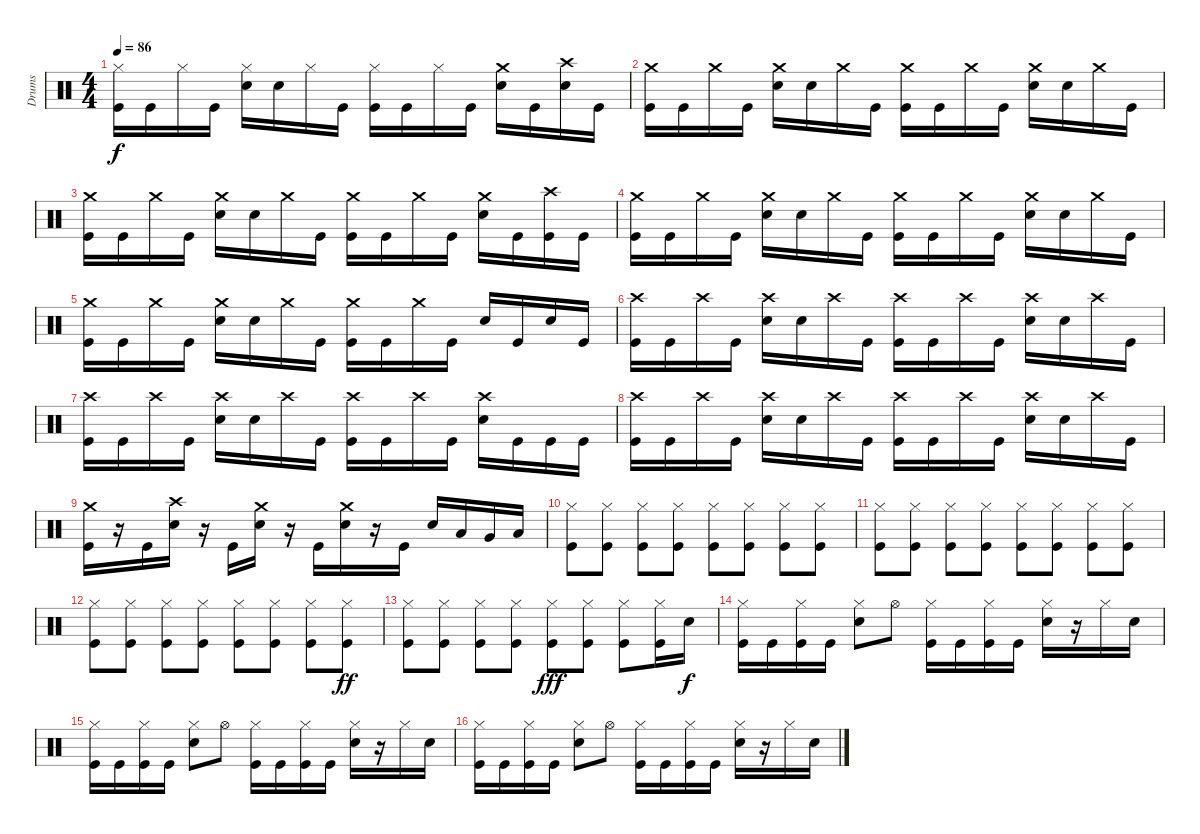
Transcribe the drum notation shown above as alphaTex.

\track ("Drums" "Drums") {instrument percussion}
\staff {score}
\articulation defaults
\ts (4 4)
\tempo 86
\clef neutral
\ks c
("Hi-Hat (closed)" "Kick (hit)").16{dy f} "Kick (hit)".16 "Hi-Hat (closed)".16 "Kick (hit)".16 ("Hi-Hat (closed)" "Electric Snare (hit)").16 "Electric Snare (hit)".16 "Hi-Hat (closed)".16 "Kick (hit)".16 ("Hi-Hat (closed)" "Kick (hit)").16 "Kick (hit)".16 "Hi-Hat (closed)".16 "Kick (hit)".16 ("Crash medium (hit)" "Electric Snare (hit)").16 "Kick (hit)".16 ("Crash high (hit)" "Electric Snare (hit)").16 "Kick (hit)".16 |
("Crash medium (hit)" "Kick (hit)").16 "Kick (hit)".16 "Crash medium (hit)".16 "Kick (hit)".16 ("Crash medium (hit)" "Electric Snare (hit)").16 "Electric Snare (hit)".16 "Crash medium (hit)".16 "Kick (hit)".16 ("Crash medium (hit)" "Kick (hit)").16 "Kick (hit)".16 "Crash medium (hit)".16 "Kick (hit)".16 ("Crash medium (hit)" "Electric Snare (hit)").16 "Electric Snare (hit)".16 "Crash medium (hit)".16 "Kick (hit)".16 |
("Crash medium (hit)" "Kick (hit)").16 "Kick (hit)".16 "Crash medium (hit)".16 "Kick (hit)".16 ("Crash medium (hit)" "Electric Snare (hit)").16 "Electric Snare (hit)".16 "Crash medium (hit)".16 "Kick (hit)".16 ("Crash medium (hit)" "Kick (hit)").16 "Kick (hit)".16 "Crash medium (hit)".16 "Kick (hit)".16 ("Crash medium (hit)" "Electric Snare (hit)").16 "Kick (hit)".16 ("Crash high (hit)" "Kick (hit)").16 "Kick (hit)".16 |
("Crash medium (hit)" "Kick (hit)").16 "Kick (hit)".16 "Crash medium (hit)".16 "Kick (hit)".16 ("Crash medium (hit)" "Electric Snare (hit)").16 "Electric Snare (hit)".16 "Crash medium (hit)".16 "Kick (hit)".16 ("Crash medium (hit)" "Kick (hit)").16 "Kick (hit)".16 "Crash medium (hit)".16 "Kick (hit)".16 ("Crash medium (hit)" "Electric Snare (hit)").16 "Electric Snare (hit)".16 "Crash medium (hit)".16 "Kick (hit)".16 |
("Crash medium (hit)" "Kick (hit)").16 "Kick (hit)".16 "Crash medium (hit)".16 "Kick (hit)".16 ("Crash medium (hit)" "Electric Snare (hit)").16 "Electric Snare (hit)".16 "Crash medium (hit)".16 "Kick (hit)".16 ("Crash medium (hit)" "Kick (hit)").16 "Kick (hit)".16 "Crash medium (hit)".16 "Kick (hit)".16 "Electric Snare (hit)".16 "Kick (hit)".16 "Electric Snare (hit)".16 "Kick (hit)".16 |
("Crash high (hit)" "Kick (hit)").16 "Kick (hit)".16 "Crash high (hit)".16 "Kick (hit)".16 ("Crash high (hit)" "Electric Snare (hit)").16 "Electric Snare (hit)".16 "Crash high (hit)".16 "Kick (hit)".16 ("Crash high (hit)" "Kick (hit)").16 "Kick (hit)".16 "Crash high (hit)".16 "Kick (hit)".16 ("Crash high (hit)" "Electric Snare (hit)").16 "Electric Snare (hit)".16 "Crash high (hit)".16 "Kick (hit)".16 |
("Crash high (hit)" "Kick (hit)").16 "Kick (hit)".16 "Crash high (hit)".16 "Kick (hit)".16 ("Crash high (hit)" "Electric Snare (hit)").16 "Electric Snare (hit)".16 "Crash high (hit)".16 "Kick (hit)".16 ("Crash high (hit)" "Kick (hit)").16 "Kick (hit)".16 "Crash high (hit)".16 "Kick (hit)".16 ("Crash high (hit)" "Electric Snare (hit)").16 "Kick (hit)".16 "Kick (hit)".16 "Kick (hit)".16 |
("Crash high (hit)" "Kick (hit)").16 "Kick (hit)".16 "Crash high (hit)".16 "Kick (hit)".16 ("Crash high (hit)" "Electric Snare (hit)").16 "Electric Snare (hit)".16 "Crash high (hit)".16 "Kick (hit)".16 ("Crash high (hit)" "Kick (hit)").16 "Kick (hit)".16 "Crash high (hit)".16 "Kick (hit)".16 ("Crash high (hit)" "Electric Snare (hit)").16 "Electric Snare (hit)".16 "Crash high (hit)".16 "Kick (hit)".16 |
("Crash medium (hit)" "Kick (hit)").16 r.16 "Kick (hit)".16 ("Crash high (hit)" "Electric Snare (hit)").16 r.16 "Kick (hit)".16 ("Crash medium (hit)" "Electric Snare (hit)").16 r.16 "Kick (hit)".16 ("Crash medium (hit)" "Electric Snare (hit)").16 r.16 "Kick (hit)".16 "Electric Snare (hit)".16 "Low Tom (hit)".16 "Very Low Tom (hit)".16 "Low Floor Tom (hit)".16 |
("Hi-Hat (closed)" "Kick (hit)").8 ("Hi-Hat (closed)" "Kick (hit)").8 ("Hi-Hat (closed)" "Kick (hit)").8 ("Hi-Hat (closed)" "Kick (hit)").8 ("Hi-Hat (closed)" "Kick (hit)").8 ("Hi-Hat (closed)" "Kick (hit)").8 ("Hi-Hat (closed)" "Kick (hit)").8 ("Hi-Hat (closed)" "Kick (hit)").8 |
("Hi-Hat (closed)" "Kick (hit)").8 ("Hi-Hat (closed)" "Kick (hit)").8 ("Hi-Hat (closed)" "Kick (hit)").8 ("Hi-Hat (closed)" "Kick (hit)").8 ("Hi-Hat (closed)" "Kick (hit)").8 ("Hi-Hat (closed)" "Kick (hit)").8 ("Hi-Hat (closed)" "Kick (hit)").8 ("Hi-Hat (closed)" "Kick (hit)").8 |
("Hi-Hat (closed)" "Kick (hit)").8{volume 16} ("Hi-Hat (closed)" "Kick (hit)").8 ("Hi-Hat (closed)" "Kick (hit)").8 ("Hi-Hat (closed)" "Kick (hit)").8 ("Hi-Hat (closed)" "Kick (hit)").8 ("Hi-Hat (closed)" "Kick (hit)").8 ("Hi-Hat (closed)" "Kick (hit)").8 ("Hi-Hat (closed)" "Kick (hit)").8{dy ff} |
("Hi-Hat (closed)" "Kick (hit)").8 ("Hi-Hat (closed)" "Kick (hit)").8 ("Hi-Hat (closed)" "Kick (hit)").8 ("Hi-Hat (closed)" "Kick (hit)").8 ("Hi-Hat (closed)" "Kick (hit)").8{dy fff} ("Hi-Hat (closed)" "Kick (hit)").8 ("Hi-Hat (closed)" "Kick (hit)").8 ("Hi-Hat (closed)" "Kick (hit)").16 "Electric Snare (hit)".16{dy f} |
("Hi-Hat (closed)" "Kick (hit)").16{volume 13} "Kick (hit)".16 ("Hi-Hat (closed)" "Kick (hit)").16 "Kick (hit)".16 ("Hi-Hat (closed)" "Electric Snare (hit)").8 "Hi-Hat (open)".8 ("Hi-Hat (closed)" "Kick (hit)").16 "Kick (hit)".16 ("Hi-Hat (closed)" "Kick (hit)").16 "Kick (hit)".16 ("Hi-Hat (closed)" "Electric Snare (hit)").16 r.16 "Hi-Hat (closed)".16 "Electric Snare (hit)".16 |
("Hi-Hat (closed)" "Kick (hit)").16 "Kick (hit)".16 ("Hi-Hat (closed)" "Kick (hit)").16 "Kick (hit)".16 ("Hi-Hat (closed)" "Electric Snare (hit)").8 "Hi-Hat (open)".8 ("Hi-Hat (closed)" "Kick (hit)").16 "Kick (hit)".16 ("Hi-Hat (closed)" "Kick (hit)").16 "Kick (hit)".16 ("Hi-Hat (closed)" "Electric Snare (hit)").16 r.16 "Hi-Hat (closed)".16 "Electric Snare (hit)".16 |
("Hi-Hat (closed)" "Kick (hit)").16 "Kick (hit)".16 ("Hi-Hat (closed)" "Kick (hit)").16 "Kick (hit)".16 ("Hi-Hat (closed)" "Electric Snare (hit)").8 "Hi-Hat (open)".8 ("Hi-Hat (closed)" "Kick (hit)").16 "Kick (hit)".16 ("Hi-Hat (closed)" "Kick (hit)").16 "Kick (hit)".16 ("Hi-Hat (closed)" "Electric Snare (hit)").16 r.16 "Hi-Hat (closed)".16 "Electric Snare (hit)".16
